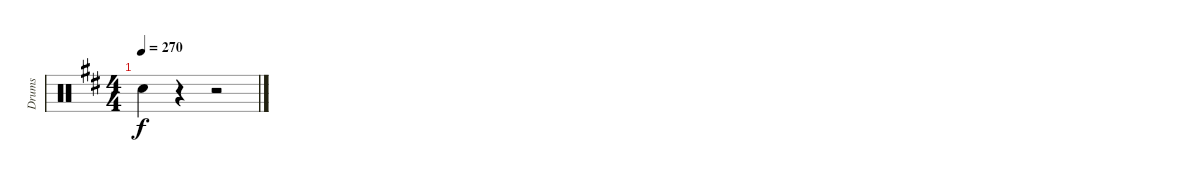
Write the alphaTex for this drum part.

\track ("Drums" "Drums") {instrument percussion}
\staff {score}
\articulation defaults
\ts (4 4)
\tempo 270
\clef neutral
\ks d "Snare (hit) 2".4{dy f}
r.4 r.2
